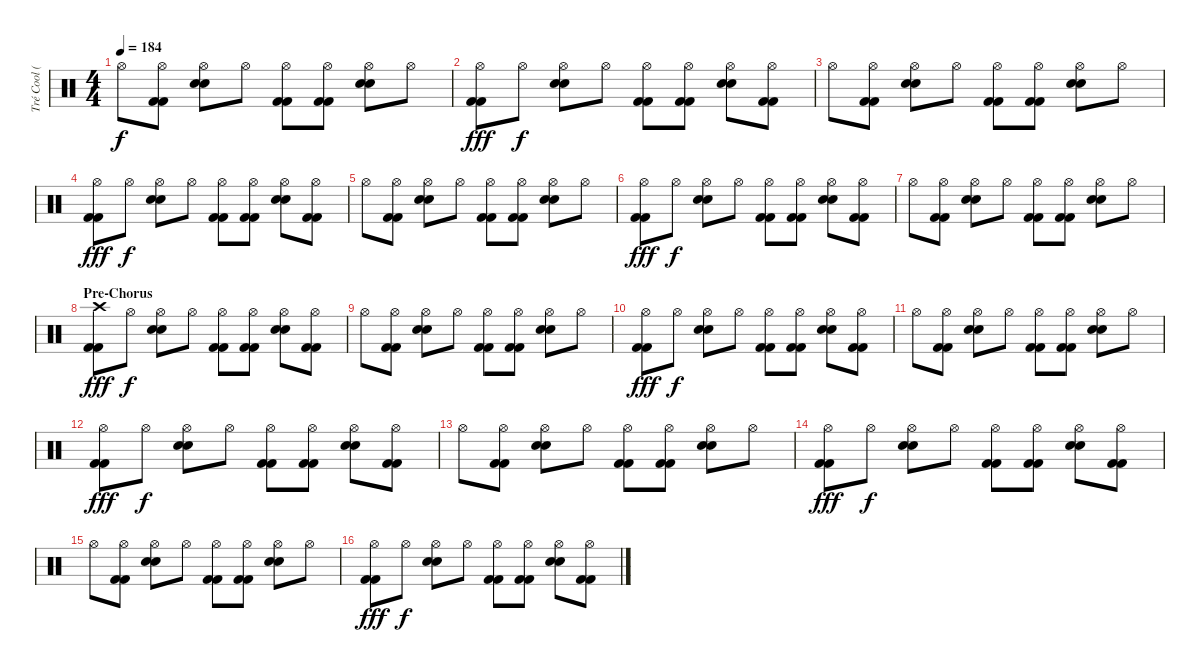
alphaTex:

\track ("Tré Cool (Drums)" "Tré Cool (") {instrument percussion}
\staff {score}
\articulation defaults
\ts (4 4)
\tempo 184
\clef neutral
\ks c "Hi-Hat (open)".8{dy f}
("Kick (hit) 2" "Kick (hit) 2" "Hi-Hat (open)").8 ("Electric Snare (hit)" "Electric Snare (hit)" "Hi-Hat (open)").8 "Hi-Hat (open)".8 ("Kick (hit) 2" "Kick (hit) 2" "Hi-Hat (open)").8 ("Kick (hit) 2" "Kick (hit) 2" "Hi-Hat (open)").8 ("Electric Snare (hit)" "Electric Snare (hit)" "Hi-Hat (open)").8 "Hi-Hat (open)".8 |
("Kick (hit) 2" "Kick (hit) 2" "Hi-Hat (open)").8{dy fff} "Hi-Hat (open)".8{dy f} ("Electric Snare (hit)" "Electric Snare (hit)" "Hi-Hat (open)").8 "Hi-Hat (open)".8 ("Kick (hit) 2" "Kick (hit) 2" "Hi-Hat (open)").8 ("Kick (hit) 2" "Kick (hit) 2" "Hi-Hat (open)").8 ("Electric Snare (hit)" "Electric Snare (hit)" "Hi-Hat (open)").8 ("Kick (hit) 2" "Kick (hit) 2" "Hi-Hat (open)").8 |
"Hi-Hat (open)".8 ("Kick (hit) 2" "Kick (hit) 2" "Hi-Hat (open)").8 ("Electric Snare (hit)" "Electric Snare (hit)" "Hi-Hat (open)").8 "Hi-Hat (open)".8 ("Kick (hit) 2" "Kick (hit) 2" "Hi-Hat (open)").8 ("Kick (hit) 2" "Kick (hit) 2" "Hi-Hat (open)").8 ("Electric Snare (hit)" "Electric Snare (hit)" "Hi-Hat (open)").8 "Hi-Hat (open)".8 |
("Kick (hit) 2" "Kick (hit) 2" "Hi-Hat (open)").8{dy fff} "Hi-Hat (open)".8{dy f} ("Electric Snare (hit)" "Electric Snare (hit)" "Hi-Hat (open)").8 "Hi-Hat (open)".8 ("Kick (hit) 2" "Kick (hit) 2" "Hi-Hat (open)").8 ("Kick (hit) 2" "Kick (hit) 2" "Hi-Hat (open)").8 ("Electric Snare (hit)" "Electric Snare (hit)" "Hi-Hat (open)").8 ("Kick (hit) 2" "Kick (hit) 2" "Hi-Hat (open)").8 |
"Hi-Hat (open)".8 ("Kick (hit) 2" "Kick (hit) 2" "Hi-Hat (open)").8 ("Electric Snare (hit)" "Electric Snare (hit)" "Hi-Hat (open)").8 "Hi-Hat (open)".8 ("Kick (hit) 2" "Kick (hit) 2" "Hi-Hat (open)").8 ("Kick (hit) 2" "Kick (hit) 2" "Hi-Hat (open)").8 ("Electric Snare (hit)" "Electric Snare (hit)" "Hi-Hat (open)").8 "Hi-Hat (open)".8 |
("Kick (hit) 2" "Kick (hit) 2" "Hi-Hat (open)").8{dy fff} "Hi-Hat (open)".8{dy f} ("Electric Snare (hit)" "Electric Snare (hit)" "Hi-Hat (open)").8 "Hi-Hat (open)".8 ("Kick (hit) 2" "Kick (hit) 2" "Hi-Hat (open)").8 ("Kick (hit) 2" "Kick (hit) 2" "Hi-Hat (open)").8 ("Electric Snare (hit)" "Electric Snare (hit)" "Hi-Hat (open)").8 ("Kick (hit) 2" "Kick (hit) 2" "Hi-Hat (open)").8 |
"Hi-Hat (open)".8 ("Kick (hit) 2" "Kick (hit) 2" "Hi-Hat (open)").8 ("Electric Snare (hit)" "Electric Snare (hit)" "Hi-Hat (open)").8 "Hi-Hat (open)".8 ("Kick (hit) 2" "Kick (hit) 2" "Hi-Hat (open)").8 ("Kick (hit) 2" "Kick (hit) 2" "Hi-Hat (open)").8 ("Electric Snare (hit)" "Electric Snare (hit)" "Hi-Hat (open)").8 "Hi-Hat (open)".8 |
\section ("" "Pre-Chorus")
("Kick (hit) 2" "Kick (hit) 2" "Crash high (hit)").8{dy fff} "Hi-Hat (open)".8{dy f} ("Electric Snare (hit)" "Electric Snare (hit)" "Hi-Hat (open)").8 "Hi-Hat (open)".8 ("Kick (hit) 2" "Kick (hit) 2" "Hi-Hat (open)").8 ("Kick (hit) 2" "Kick (hit) 2" "Hi-Hat (open)").8 ("Electric Snare (hit)" "Electric Snare (hit)" "Hi-Hat (open)").8 ("Kick (hit) 2" "Kick (hit) 2" "Hi-Hat (open)").8 |
"Hi-Hat (open)".8 ("Kick (hit) 2" "Kick (hit) 2" "Hi-Hat (open)").8 ("Electric Snare (hit)" "Electric Snare (hit)" "Hi-Hat (open)").8 "Hi-Hat (open)".8 ("Kick (hit) 2" "Kick (hit) 2" "Hi-Hat (open)").8 ("Kick (hit) 2" "Kick (hit) 2" "Hi-Hat (open)").8 ("Electric Snare (hit)" "Electric Snare (hit)" "Hi-Hat (open)").8 "Hi-Hat (open)".8 |
("Kick (hit) 2" "Kick (hit) 2" "Hi-Hat (open)").8{dy fff} "Hi-Hat (open)".8{dy f} ("Electric Snare (hit)" "Electric Snare (hit)" "Hi-Hat (open)").8 "Hi-Hat (open)".8 ("Kick (hit) 2" "Kick (hit) 2" "Hi-Hat (open)").8 ("Kick (hit) 2" "Kick (hit) 2" "Hi-Hat (open)").8 ("Electric Snare (hit)" "Electric Snare (hit)" "Hi-Hat (open)").8 ("Kick (hit) 2" "Kick (hit) 2" "Hi-Hat (open)").8 |
"Hi-Hat (open)".8 ("Kick (hit) 2" "Kick (hit) 2" "Hi-Hat (open)").8 ("Electric Snare (hit)" "Electric Snare (hit)" "Hi-Hat (open)").8 "Hi-Hat (open)".8 ("Kick (hit) 2" "Kick (hit) 2" "Hi-Hat (open)").8 ("Kick (hit) 2" "Kick (hit) 2" "Hi-Hat (open)").8 ("Electric Snare (hit)" "Electric Snare (hit)" "Hi-Hat (open)").8 "Hi-Hat (open)".8 |
("Kick (hit) 2" "Kick (hit) 2" "Hi-Hat (open)").8{dy fff} "Hi-Hat (open)".8{dy f} ("Electric Snare (hit)" "Electric Snare (hit)" "Hi-Hat (open)").8 "Hi-Hat (open)".8 ("Kick (hit) 2" "Kick (hit) 2" "Hi-Hat (open)").8 ("Kick (hit) 2" "Kick (hit) 2" "Hi-Hat (open)").8 ("Electric Snare (hit)" "Electric Snare (hit)" "Hi-Hat (open)").8 ("Kick (hit) 2" "Kick (hit) 2" "Hi-Hat (open)").8 |
"Hi-Hat (open)".8 ("Kick (hit) 2" "Kick (hit) 2" "Hi-Hat (open)").8 ("Electric Snare (hit)" "Electric Snare (hit)" "Hi-Hat (open)").8 "Hi-Hat (open)".8 ("Kick (hit) 2" "Kick (hit) 2" "Hi-Hat (open)").8 ("Kick (hit) 2" "Kick (hit) 2" "Hi-Hat (open)").8 ("Electric Snare (hit)" "Electric Snare (hit)" "Hi-Hat (open)").8 "Hi-Hat (open)".8 |
("Kick (hit) 2" "Kick (hit) 2" "Hi-Hat (open)").8{dy fff} "Hi-Hat (open)".8{dy f} ("Electric Snare (hit)" "Electric Snare (hit)" "Hi-Hat (open)").8 "Hi-Hat (open)".8 ("Kick (hit) 2" "Kick (hit) 2" "Hi-Hat (open)").8 ("Kick (hit) 2" "Kick (hit) 2" "Hi-Hat (open)").8 ("Electric Snare (hit)" "Electric Snare (hit)" "Hi-Hat (open)").8 ("Kick (hit) 2" "Kick (hit) 2" "Hi-Hat (open)").8 |
"Hi-Hat (open)".8 ("Kick (hit) 2" "Kick (hit) 2" "Hi-Hat (open)").8 ("Electric Snare (hit)" "Electric Snare (hit)" "Hi-Hat (open)").8 "Hi-Hat (open)".8 ("Kick (hit) 2" "Kick (hit) 2" "Hi-Hat (open)").8 ("Kick (hit) 2" "Kick (hit) 2" "Hi-Hat (open)").8 ("Electric Snare (hit)" "Electric Snare (hit)" "Hi-Hat (open)").8 "Hi-Hat (open)".8 |
("Kick (hit) 2" "Kick (hit) 2" "Hi-Hat (open)").8{dy fff} "Hi-Hat (open)".8{dy f} ("Electric Snare (hit)" "Electric Snare (hit)" "Hi-Hat (open)").8 "Hi-Hat (open)".8 ("Kick (hit) 2" "Kick (hit) 2" "Hi-Hat (open)").8 ("Kick (hit) 2" "Kick (hit) 2" "Hi-Hat (open)").8 ("Electric Snare (hit)" "Electric Snare (hit)" "Hi-Hat (open)").8 ("Kick (hit) 2" "Kick (hit) 2" "Hi-Hat (open)").8
